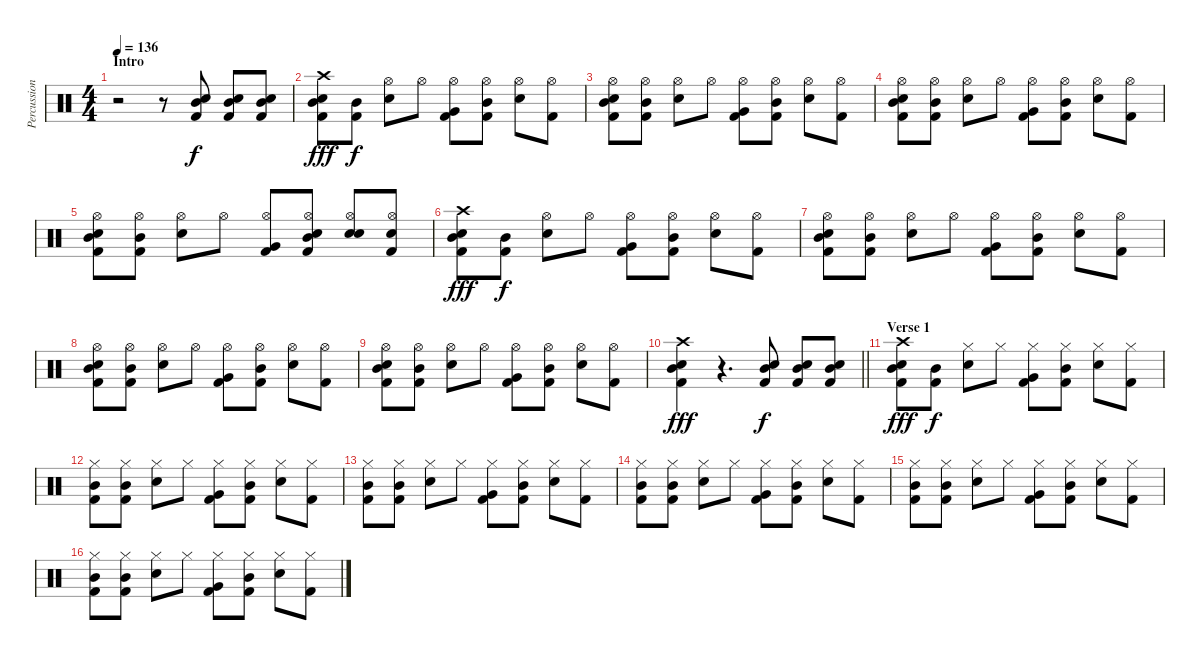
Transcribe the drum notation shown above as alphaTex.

\track ("Percussion" "Percussion") {instrument percussion}
\staff {score}
\articulation defaults
\ts (4 4)
\section ("" "Intro")
\tempo 136
\clef neutral
\ks c
r.2{dy f} r.8 ("Mid Tom (hit)" "Snare (hit) 2" "Kick (hit) 2").8 ("Mid Tom (hit)" "Snare (hit) 2" "Kick (hit) 2").8 ("Mid Tom (hit)" "Snare (hit) 2" "Kick (hit) 2").8 |
("Crash high (hit)" "Mid Tom (hit)" "Snare (hit) 2" "Kick (hit) 2").8{dy fff} ("Mid Tom (hit)" "Kick (hit) 2").8{dy f} ("Hi-Hat (open)" "Snare (hit) 2").8 "Hi-Hat (open)".8 ("Hi-Hat (open)" "Very Low Tom (hit)" "Kick (hit) 2").8 ("Hi-Hat (open)" "Mid Tom (hit)" "Kick (hit) 2").8 ("Hi-Hat (open)" "Snare (hit) 2").8 ("Hi-Hat (open)" "Kick (hit) 2").8 |
("Hi-Hat (open)" "Mid Tom (hit)" "Snare (hit) 2" "Kick (hit) 2").8 ("Hi-Hat (open)" "Mid Tom (hit)" "Kick (hit) 2").8 ("Hi-Hat (open)" "Snare (hit) 2").8 "Hi-Hat (open)".8 ("Hi-Hat (open)" "Very Low Tom (hit)" "Kick (hit) 2").8 ("Hi-Hat (open)" "Mid Tom (hit)" "Kick (hit) 2").8 ("Hi-Hat (open)" "Snare (hit) 2").8 ("Hi-Hat (open)" "Kick (hit) 2").8 |
("Hi-Hat (open)" "Mid Tom (hit)" "Snare (hit) 2" "Kick (hit) 2").8 ("Hi-Hat (open)" "Mid Tom (hit)" "Kick (hit) 2").8 ("Hi-Hat (open)" "Snare (hit) 2").8 "Hi-Hat (open)".8 ("Hi-Hat (open)" "Very Low Tom (hit)" "Kick (hit) 2").8 ("Hi-Hat (open)" "Mid Tom (hit)" "Kick (hit) 2").8 ("Hi-Hat (open)" "Snare (hit) 2").8 ("Hi-Hat (open)" "Kick (hit) 2").8 |
("Hi-Hat (open)" "Mid Tom (hit)" "Snare (hit) 2" "Kick (hit) 2").8 ("Hi-Hat (open)" "Mid Tom (hit)" "Kick (hit) 2").8 ("Hi-Hat (open)" "Snare (hit) 2").8 "Hi-Hat (open)".8 ("Hi-Hat (open)" "Very Low Tom (hit)" "Kick (hit) 2").8 ("Hi-Hat (open)" "Mid Tom (hit)" "Hand Clap (hit)" "Kick (hit) 2").8 ("Hi-Hat (open)" "Hand Clap (hit)" "Snare (hit) 2").8 ("Hi-Hat (open)" "Hand Clap (hit)" "Kick (hit) 2").8 |
("Crash high (hit)" "Mid Tom (hit)" "Snare (hit) 2" "Kick (hit) 2").8{dy fff} ("Mid Tom (hit)" "Kick (hit) 2").8{dy f} ("Hi-Hat (open)" "Snare (hit) 2").8 "Hi-Hat (open)".8 ("Hi-Hat (open)" "Very Low Tom (hit)" "Kick (hit) 2").8 ("Hi-Hat (open)" "Mid Tom (hit)" "Kick (hit) 2").8 ("Hi-Hat (open)" "Snare (hit) 2").8 ("Hi-Hat (open)" "Kick (hit) 2").8 |
("Hi-Hat (open)" "Mid Tom (hit)" "Snare (hit) 2" "Kick (hit) 2").8 ("Hi-Hat (open)" "Mid Tom (hit)" "Kick (hit) 2").8 ("Hi-Hat (open)" "Snare (hit) 2").8 "Hi-Hat (open)".8 ("Hi-Hat (open)" "Very Low Tom (hit)" "Kick (hit) 2").8 ("Hi-Hat (open)" "Mid Tom (hit)" "Kick (hit) 2").8 ("Hi-Hat (open)" "Snare (hit) 2").8 ("Hi-Hat (open)" "Kick (hit) 2").8 |
("Hi-Hat (open)" "Mid Tom (hit)" "Snare (hit) 2" "Kick (hit) 2").8 ("Hi-Hat (open)" "Mid Tom (hit)" "Kick (hit) 2").8 ("Hi-Hat (open)" "Snare (hit) 2").8 "Hi-Hat (open)".8 ("Hi-Hat (open)" "Very Low Tom (hit)" "Kick (hit) 2").8 ("Hi-Hat (open)" "Mid Tom (hit)" "Kick (hit) 2").8 ("Hi-Hat (open)" "Snare (hit) 2").8 ("Hi-Hat (open)" "Kick (hit) 2").8 |
("Hi-Hat (open)" "Mid Tom (hit)" "Snare (hit) 2" "Kick (hit) 2").8 ("Hi-Hat (open)" "Mid Tom (hit)" "Kick (hit) 2").8 ("Hi-Hat (open)" "Snare (hit) 2").8 "Hi-Hat (open)".8 ("Hi-Hat (open)" "Very Low Tom (hit)" "Kick (hit) 2").8 ("Hi-Hat (open)" "Mid Tom (hit)" "Kick (hit) 2").8 ("Hi-Hat (open)" "Snare (hit) 2").8 ("Hi-Hat (open)" "Kick (hit) 2").8 |
\barLineRight lightlight
("Crash high (hit)" "Mid Tom (hit)" "Snare (hit) 2" "Kick (hit) 2").4{dy fff} r.4{d} ("Mid Tom (hit)" "Snare (hit) 2" "Kick (hit) 2").8{dy f} ("Mid Tom (hit)" "Snare (hit) 2" "Kick (hit) 2").8 ("Mid Tom (hit)" "Snare (hit) 2" "Kick (hit) 2").8 |
\section ("" "Verse 1")
("Crash high (hit)" "Mid Tom (hit)" "Snare (hit) 2" "Kick (hit) 2").8{dy fff} ("Mid Tom (hit)" "Kick (hit) 2").8{dy f} ("Hi-Hat (closed)" "Snare (hit) 2").8 "Hi-Hat (closed)".8 ("Hi-Hat (closed)" "Very Low Tom (hit)" "Kick (hit) 2").8 ("Hi-Hat (closed)" "Mid Tom (hit)" "Kick (hit) 2").8 ("Hi-Hat (closed)" "Snare (hit) 2").8 ("Hi-Hat (closed)" "Kick (hit) 2").8 |
("Hi-Hat (closed)" "Mid Tom (hit)" "Kick (hit) 2").8 ("Hi-Hat (closed)" "Mid Tom (hit)" "Kick (hit) 2").8 ("Hi-Hat (closed)" "Snare (hit) 2").8 "Hi-Hat (closed)".8 ("Hi-Hat (closed)" "Very Low Tom (hit)" "Kick (hit) 2").8 ("Hi-Hat (closed)" "Mid Tom (hit)" "Kick (hit) 2").8 ("Hi-Hat (closed)" "Snare (hit) 2").8 ("Hi-Hat (closed)" "Kick (hit) 2").8 |
("Hi-Hat (closed)" "Mid Tom (hit)" "Kick (hit) 2").8 ("Hi-Hat (closed)" "Mid Tom (hit)" "Kick (hit) 2").8 ("Hi-Hat (closed)" "Snare (hit) 2").8 "Hi-Hat (closed)".8 ("Hi-Hat (closed)" "Very Low Tom (hit)" "Kick (hit) 2").8 ("Hi-Hat (closed)" "Mid Tom (hit)" "Kick (hit) 2").8 ("Hi-Hat (closed)" "Snare (hit) 2").8 ("Hi-Hat (closed)" "Kick (hit) 2").8 |
("Hi-Hat (closed)" "Mid Tom (hit)" "Kick (hit) 2").8 ("Hi-Hat (closed)" "Mid Tom (hit)" "Kick (hit) 2").8 ("Hi-Hat (closed)" "Snare (hit) 2").8 "Hi-Hat (closed)".8 ("Hi-Hat (closed)" "Very Low Tom (hit)" "Kick (hit) 2").8 ("Hi-Hat (closed)" "Mid Tom (hit)" "Kick (hit) 2").8 ("Hi-Hat (closed)" "Snare (hit) 2").8 ("Hi-Hat (closed)" "Kick (hit) 2").8 |
("Hi-Hat (closed)" "Mid Tom (hit)" "Kick (hit) 2").8 ("Hi-Hat (closed)" "Mid Tom (hit)" "Kick (hit) 2").8 ("Hi-Hat (closed)" "Snare (hit) 2").8 "Hi-Hat (closed)".8 ("Hi-Hat (closed)" "Very Low Tom (hit)" "Kick (hit) 2").8 ("Hi-Hat (closed)" "Mid Tom (hit)" "Kick (hit) 2").8 ("Hi-Hat (closed)" "Snare (hit) 2").8 ("Hi-Hat (closed)" "Kick (hit) 2").8 |
("Hi-Hat (closed)" "Mid Tom (hit)" "Kick (hit) 2").8 ("Hi-Hat (closed)" "Mid Tom (hit)" "Kick (hit) 2").8 ("Hi-Hat (closed)" "Snare (hit) 2").8 "Hi-Hat (closed)".8 ("Hi-Hat (closed)" "Very Low Tom (hit)" "Kick (hit) 2").8 ("Hi-Hat (closed)" "Mid Tom (hit)" "Kick (hit) 2").8 ("Hi-Hat (closed)" "Snare (hit) 2").8 ("Hi-Hat (closed)" "Kick (hit) 2").8
